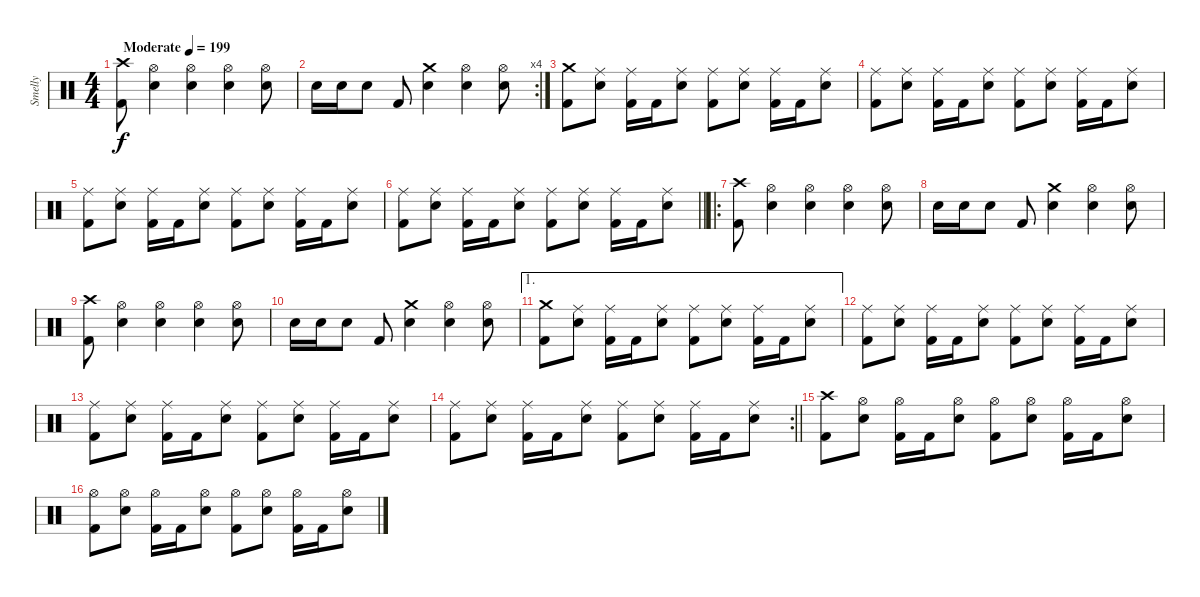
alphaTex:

\track ("Smelly" "Smelly") {instrument percussion}
\staff {score}
\articulation defaults
\ts (4 4)
\tempo (199 "Moderate")
\clef neutral
\ks c
("Crash high (hit)" "Kick (hit) 2").8{dy f} ("Hi-Hat (open)" "Electric Snare (hit)").4 ("Hi-Hat (open)" "Electric Snare (hit)").4 ("Hi-Hat (open)" "Electric Snare (hit)").4 ("Hi-Hat (open)" "Electric Snare (hit)").8 |
\rc 4 "Electric Snare (hit)".16 "Electric Snare (hit)".16 "Electric Snare (hit)".8 "Kick (hit) 2".8
("Crash medium (hit)" "Electric Snare (hit)").4 ("Hi-Hat (open)" "Electric Snare (hit)").4 ("Hi-Hat (open)" "Electric Snare (hit)").8 |
("Crash medium (hit)" "Kick (hit) 2").8 ("Ride (middle)" "Electric Snare (hit)").8 ("Ride (middle)" "Kick (hit) 2").16 "Kick (hit) 2".16 ("Ride (middle)" "Electric Snare (hit)").8 ("Ride (middle)" "Kick (hit) 2").8 ("Ride (middle)" "Electric Snare (hit)").8 ("Ride (middle)" "Kick (hit) 2").16 "Kick (hit) 2".16 ("Ride (middle)" "Electric Snare (hit)").8 |
("Ride (middle)" "Kick (hit) 2").8 ("Ride (middle)" "Electric Snare (hit)").8 ("Ride (middle)" "Kick (hit) 2").16 "Kick (hit) 2".16 ("Ride (middle)" "Electric Snare (hit)").8 ("Ride (middle)" "Kick (hit) 2").8 ("Ride (middle)" "Electric Snare (hit)").8 ("Ride (middle)" "Kick (hit) 2").16 "Kick (hit) 2".16 ("Ride (middle)" "Electric Snare (hit)").8 |
("Ride (middle)" "Kick (hit) 2").8 ("Ride (middle)" "Electric Snare (hit)").8 ("Ride (middle)" "Kick (hit) 2").16 "Kick (hit) 2".16 ("Ride (middle)" "Electric Snare (hit)").8 ("Ride (middle)" "Kick (hit) 2").8 ("Ride (middle)" "Electric Snare (hit)").8 ("Ride (middle)" "Kick (hit) 2").16 "Kick (hit) 2".16 ("Ride (middle)" "Electric Snare (hit)").8 |
\barLineRight lightlight
("Ride (middle)" "Kick (hit) 2").8 ("Ride (middle)" "Electric Snare (hit)").8 ("Ride (middle)" "Kick (hit) 2").16 "Kick (hit) 2".16 ("Ride (middle)" "Electric Snare (hit)").8 ("Ride (middle)" "Kick (hit) 2").8 ("Ride (middle)" "Electric Snare (hit)").8 ("Ride (middle)" "Kick (hit) 2").16 "Kick (hit) 2".16 ("Ride (middle)" "Electric Snare (hit)").8 |
\ro
\section ("" "")
("Crash high (hit)" "Kick (hit) 2").8 ("Hi-Hat (open)" "Electric Snare (hit)").4 ("Hi-Hat (open)" "Electric Snare (hit)").4 ("Hi-Hat (open)" "Electric Snare (hit)").4 ("Hi-Hat (open)" "Electric Snare (hit)").8 |
"Electric Snare (hit)".16 "Electric Snare (hit)".16 "Electric Snare (hit)".8 "Kick (hit) 2".8 ("Crash medium (hit)" "Electric Snare (hit)").4 ("Hi-Hat (open)" "Electric Snare (hit)").4 ("Hi-Hat (open)" "Electric Snare (hit)").8 |
("Crash high (hit)" "Kick (hit) 2").8 ("Hi-Hat (open)" "Electric Snare (hit)").4 ("Hi-Hat (open)" "Electric Snare (hit)").4 ("Hi-Hat (open)" "Electric Snare (hit)").4 ("Hi-Hat (open)" "Electric Snare (hit)").8 |
"Electric Snare (hit)".16 "Electric Snare (hit)".16 "Electric Snare (hit)".8 "Kick (hit) 2".8 ("Crash medium (hit)" "Electric Snare (hit)").4 ("Hi-Hat (open)" "Electric Snare (hit)").4 ("Hi-Hat (open)" "Electric Snare (hit)").8 |
\ae 1
("Crash medium (hit)" "Kick (hit) 2").8 ("Ride (middle)" "Electric Snare (hit)").8 ("Ride (middle)" "Kick (hit) 2").16 "Kick (hit) 2".16 ("Ride (middle)" "Electric Snare (hit)").8 ("Ride (middle)" "Kick (hit) 2").8 ("Ride (middle)" "Electric Snare (hit)").8 ("Ride (middle)" "Kick (hit) 2").16 "Kick (hit) 2".16 ("Ride (middle)" "Electric Snare (hit)").8 |
("Ride (middle)" "Kick (hit) 2").8 ("Ride (middle)" "Electric Snare (hit)").8 ("Ride (middle)" "Kick (hit) 2").16 "Kick (hit) 2".16 ("Ride (middle)" "Electric Snare (hit)").8 ("Ride (middle)" "Kick (hit) 2").8 ("Ride (middle)" "Electric Snare (hit)").8 ("Ride (middle)" "Kick (hit) 2").16 "Kick (hit) 2".16 ("Ride (middle)" "Electric Snare (hit)").8 |
("Ride (middle)" "Kick (hit) 2").8 ("Ride (middle)" "Electric Snare (hit)").8 ("Ride (middle)" "Kick (hit) 2").16 "Kick (hit) 2".16 ("Ride (middle)" "Electric Snare (hit)").8 ("Ride (middle)" "Kick (hit) 2").8 ("Ride (middle)" "Electric Snare (hit)").8 ("Ride (middle)" "Kick (hit) 2").16 "Kick (hit) 2".16 ("Ride (middle)" "Electric Snare (hit)").8 |
\rc 2
\barLineRight lightlight
("Ride (middle)" "Kick (hit) 2").8 ("Ride (middle)" "Electric Snare (hit)").8 ("Ride (middle)" "Kick (hit) 2").16 "Kick (hit) 2".16 ("Ride (middle)" "Electric Snare (hit)").8 ("Ride (middle)" "Kick (hit) 2").8 ("Ride (middle)" "Electric Snare (hit)").8 ("Ride (middle)" "Kick (hit) 2").16 "Kick (hit) 2".16 ("Ride (middle)" "Electric Snare (hit)").8 |
\section ("" "")
("Crash high (hit)" "Kick (hit) 2").8 ("Hi-Hat (open)" "Electric Snare (hit)").8 ("Hi-Hat (open)" "Kick (hit) 2").16 "Kick (hit) 2".16 ("Hi-Hat (open)" "Electric Snare (hit)").8 ("Hi-Hat (open)" "Kick (hit) 2").8 ("Hi-Hat (open)" "Electric Snare (hit)").8 ("Hi-Hat (open)" "Kick (hit) 2").16 "Kick (hit) 2".16 ("Hi-Hat (open)" "Electric Snare (hit)").8 |
("Hi-Hat (open)" "Kick (hit) 2").8 ("Hi-Hat (open)" "Electric Snare (hit)").8 ("Hi-Hat (open)" "Kick (hit) 2").16 "Kick (hit) 2".16 ("Hi-Hat (open)" "Electric Snare (hit)").8 ("Hi-Hat (open)" "Kick (hit) 2").8 ("Hi-Hat (open)" "Electric Snare (hit)").8 ("Hi-Hat (open)" "Kick (hit) 2").16 "Kick (hit) 2".16 ("Hi-Hat (open)" "Electric Snare (hit)").8
